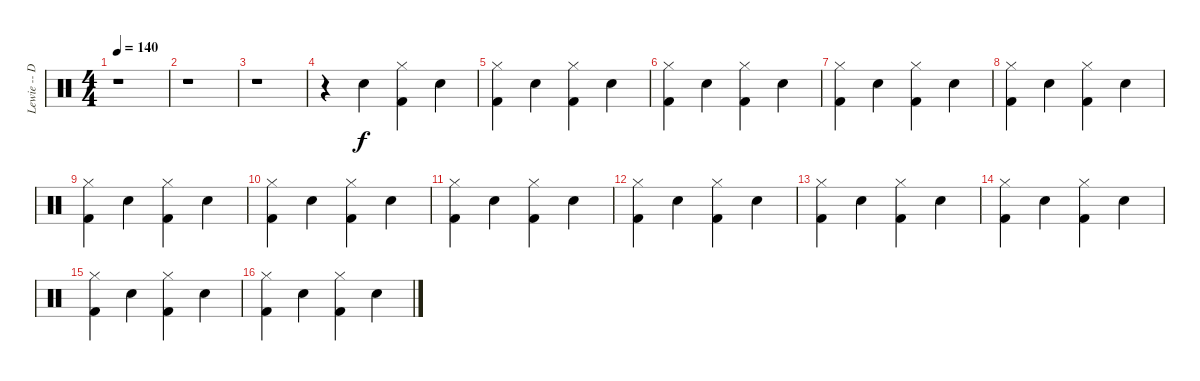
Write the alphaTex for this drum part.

\track ("Lewie -- Drums" "Lewie -- D") {instrument percussion}
\staff {score}
\articulation defaults
\ts (4 4)
\tempo 140
\clef neutral
\ks c
r.1{dy f} |
r.1 |
r.1 |
r.4 "Electric Snare (hit)".4 ("Hi-Hat (closed)" "Kick (hit) 2").4 "Snare (hit) 2".4 |
("Hi-Hat (closed)" "Kick (hit) 2").4 "Electric Snare (hit)".4 ("Hi-Hat (closed)" "Kick (hit) 2").4 "Electric Snare (hit)".4 |
("Hi-Hat (closed)" "Kick (hit) 2").4 "Electric Snare (hit)".4 ("Hi-Hat (closed)" "Kick (hit) 2").4 "Electric Snare (hit)".4 |
("Hi-Hat (closed)" "Kick (hit) 2").4 "Electric Snare (hit)".4 ("Hi-Hat (closed)" "Kick (hit) 2").4 "Electric Snare (hit)".4 |
("Hi-Hat (closed)" "Kick (hit) 2").4 "Electric Snare (hit)".4 ("Hi-Hat (closed)" "Kick (hit) 2").4 "Electric Snare (hit)".4 |
("Hi-Hat (closed)" "Kick (hit) 2").4 "Electric Snare (hit)".4 ("Hi-Hat (closed)" "Kick (hit) 2").4 "Electric Snare (hit)".4 |
("Hi-Hat (closed)" "Kick (hit) 2").4 "Electric Snare (hit)".4 ("Hi-Hat (closed)" "Kick (hit) 2").4 "Electric Snare (hit)".4 |
("Hi-Hat (closed)" "Kick (hit) 2").4 "Electric Snare (hit)".4 ("Hi-Hat (closed)" "Kick (hit) 2").4 "Electric Snare (hit)".4 |
("Hi-Hat (closed)" "Kick (hit) 2").4 "Electric Snare (hit)".4 ("Hi-Hat (closed)" "Kick (hit) 2").4 "Electric Snare (hit)".4 |
("Hi-Hat (closed)" "Kick (hit) 2").4 "Electric Snare (hit)".4 ("Hi-Hat (closed)" "Kick (hit) 2").4 "Electric Snare (hit)".4 |
("Hi-Hat (closed)" "Kick (hit) 2").4 "Electric Snare (hit)".4 ("Hi-Hat (closed)" "Kick (hit) 2").4 "Electric Snare (hit)".4 |
("Hi-Hat (closed)" "Kick (hit) 2").4 "Electric Snare (hit)".4 ("Hi-Hat (closed)" "Kick (hit) 2").4 "Electric Snare (hit)".4 |
("Hi-Hat (closed)" "Kick (hit) 2").4 "Electric Snare (hit)".4 ("Hi-Hat (closed)" "Kick (hit) 2").4 "Electric Snare (hit)".4
